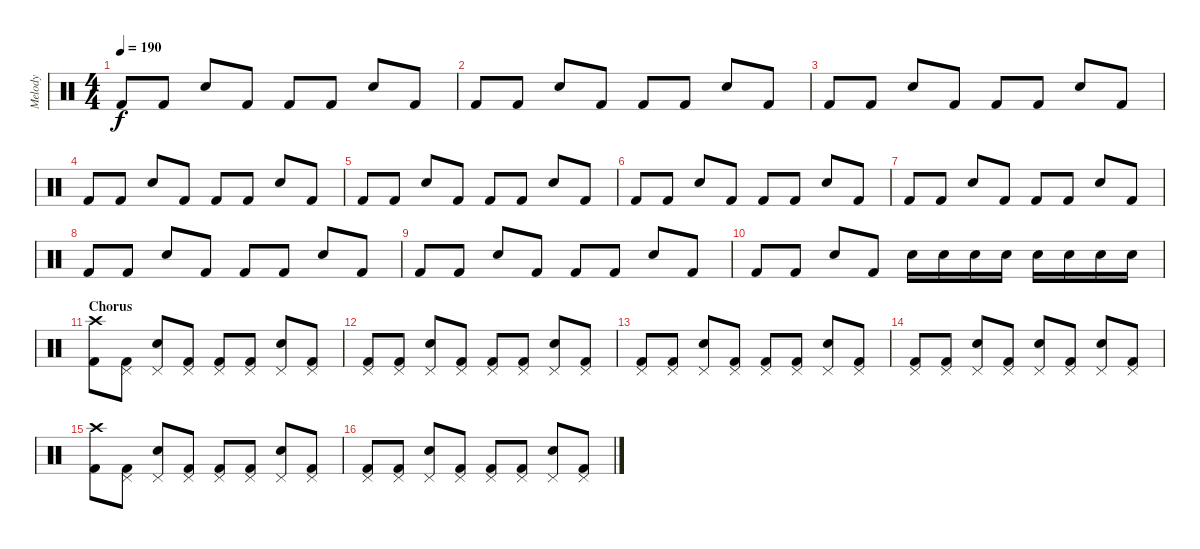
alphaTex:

\track ("Melody" "Melody") {instrument percussion}
\staff {score}
\articulation defaults
\ts (4 4)
\tempo 190
\clef neutral
\ks c "Kick (hit) 2".8{dy f} "Kick (hit) 2".8 "Snare (hit) 2".8 "Kick (hit) 2".8 "Kick (hit) 2".8 "Kick (hit) 2".8 "Snare (hit) 2".8 "Kick (hit) 2".8
|
"Kick (hit) 2".8 "Kick (hit) 2".8 "Snare (hit) 2".8 "Kick (hit) 2".8 "Kick (hit) 2".8 "Kick (hit) 2".8 "Snare (hit) 2".8 "Kick (hit) 2".8 |
"Kick (hit) 2".8 "Kick (hit) 2".8 "Snare (hit) 2".8 "Kick (hit) 2".8 "Kick (hit) 2".8 "Kick (hit) 2".8 "Snare (hit) 2".8 "Kick (hit) 2".8 |
"Kick (hit) 2".8 "Kick (hit) 2".8 "Snare (hit) 2".8 "Kick (hit) 2".8 "Kick (hit) 2".8 "Kick (hit) 2".8 "Snare (hit) 2".8 "Kick (hit) 2".8 |
"Kick (hit) 2".8 "Kick (hit) 2".8 "Snare (hit) 2".8 "Kick (hit) 2".8 "Kick (hit) 2".8 "Kick (hit) 2".8 "Snare (hit) 2".8 "Kick (hit) 2".8 |
"Kick (hit) 2".8 "Kick (hit) 2".8 "Snare (hit) 2".8 "Kick (hit) 2".8 "Kick (hit) 2".8 "Kick (hit) 2".8 "Snare (hit) 2".8 "Kick (hit) 2".8 |
"Kick (hit) 2".8 "Kick (hit) 2".8 "Snare (hit) 2".8 "Kick (hit) 2".8 "Kick (hit) 2".8 "Kick (hit) 2".8 "Snare (hit) 2".8 "Kick (hit) 2".8 |
"Kick (hit) 2".8 "Kick (hit) 2".8 "Snare (hit) 2".8 "Kick (hit) 2".8 "Kick (hit) 2".8 "Kick (hit) 2".8 "Snare (hit) 2".8 "Kick (hit) 2".8 |
"Kick (hit) 2".8 "Kick (hit) 2".8 "Snare (hit) 2".8 "Kick (hit) 2".8 "Kick (hit) 2".8 "Kick (hit) 2".8 "Snare (hit) 2".8 "Kick (hit) 2".8 |
"Kick (hit) 2".8 "Kick (hit) 2".8 "Snare (hit) 2".8 "Kick (hit) 2".8 "Snare (hit) 2".16 "Snare (hit) 2".16 "Snare (hit) 2".16 "Snare (hit) 2".16 "Snare (hit) 2".16 "Snare (hit) 2".16 "Snare (hit) 2".16 "Snare (hit) 2".16 |
\section ("" "Chorus")
("Crash high (hit)" "Kick (hit) 2").8 ("Pedal Hi-Hat (hit)" "Kick (hit) 2").8 ("Pedal Hi-Hat (hit)" "Snare (hit) 2").8 ("Pedal Hi-Hat (hit)" "Kick (hit) 2").8 ("Pedal Hi-Hat (hit)" "Kick (hit) 2").8 ("Pedal Hi-Hat (hit)" "Kick (hit) 2").8 ("Pedal Hi-Hat (hit)" "Snare (hit) 2").8 ("Pedal Hi-Hat (hit)" "Kick (hit) 2").8 |
("Pedal Hi-Hat (hit)" "Kick (hit) 2").8 ("Pedal Hi-Hat (hit)" "Kick (hit) 2").8 ("Pedal Hi-Hat (hit)" "Snare (hit) 2").8 ("Pedal Hi-Hat (hit)" "Kick (hit) 2").8 ("Pedal Hi-Hat (hit)" "Kick (hit) 2").8 ("Pedal Hi-Hat (hit)" "Kick (hit) 2").8 ("Pedal Hi-Hat (hit)" "Snare (hit) 2").8 ("Pedal Hi-Hat (hit)" "Kick (hit) 2").8 |
("Pedal Hi-Hat (hit)" "Kick (hit) 2").8 ("Pedal Hi-Hat (hit)" "Kick (hit) 2").8 ("Pedal Hi-Hat (hit)" "Snare (hit) 2").8 ("Pedal Hi-Hat (hit)" "Kick (hit) 2").8 ("Pedal Hi-Hat (hit)" "Kick (hit) 2").8 ("Pedal Hi-Hat (hit)" "Kick (hit) 2").8 ("Pedal Hi-Hat (hit)" "Snare (hit) 2").8 ("Pedal Hi-Hat (hit)" "Kick (hit) 2").8 |
("Pedal Hi-Hat (hit)" "Kick (hit) 2").8 ("Pedal Hi-Hat (hit)" "Kick (hit) 2").8 ("Pedal Hi-Hat (hit)" "Snare (hit) 2").8 ("Pedal Hi-Hat (hit)" "Kick (hit) 2").8 ("Pedal Hi-Hat (hit)" "Snare (hit) 2").8 ("Pedal Hi-Hat (hit)" "Kick (hit) 2").8 ("Pedal Hi-Hat (hit)" "Snare (hit) 2").8 ("Pedal Hi-Hat (hit)" "Kick (hit) 2").8 |
("Crash high (hit)" "Kick (hit) 2").8 ("Pedal Hi-Hat (hit)" "Kick (hit) 2").8 ("Pedal Hi-Hat (hit)" "Snare (hit) 2").8 ("Pedal Hi-Hat (hit)" "Kick (hit) 2").8 ("Pedal Hi-Hat (hit)" "Kick (hit) 2").8 ("Pedal Hi-Hat (hit)" "Kick (hit) 2").8 ("Pedal Hi-Hat (hit)" "Snare (hit) 2").8 ("Pedal Hi-Hat (hit)" "Kick (hit) 2").8 |
("Pedal Hi-Hat (hit)" "Kick (hit) 2").8 ("Pedal Hi-Hat (hit)" "Kick (hit) 2").8 ("Pedal Hi-Hat (hit)" "Snare (hit) 2").8 ("Pedal Hi-Hat (hit)" "Kick (hit) 2").8 ("Pedal Hi-Hat (hit)" "Kick (hit) 2").8 ("Pedal Hi-Hat (hit)" "Kick (hit) 2").8 ("Pedal Hi-Hat (hit)" "Snare (hit) 2").8 ("Pedal Hi-Hat (hit)" "Kick (hit) 2").8
